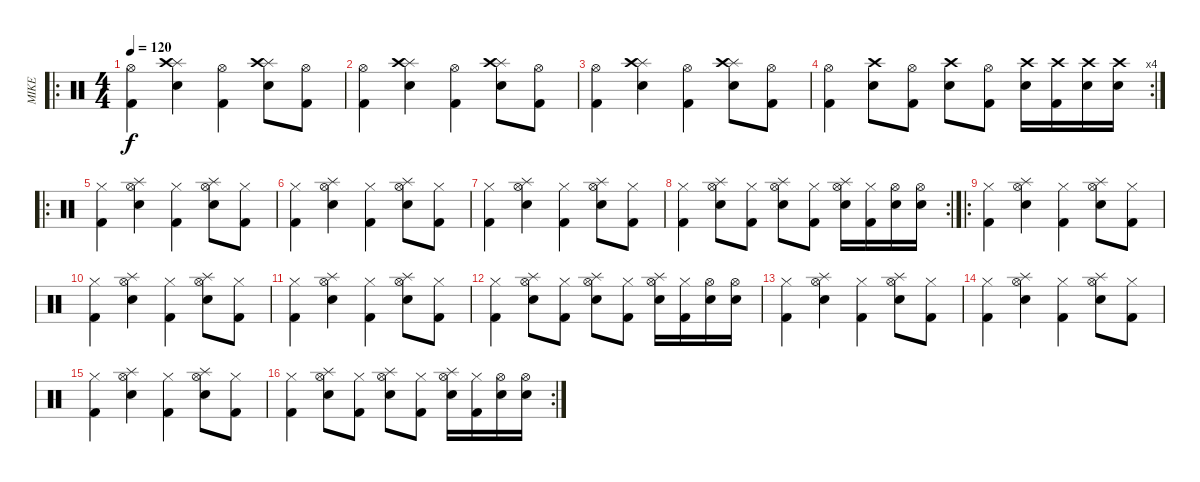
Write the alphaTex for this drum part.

\track ("MIKE" "MIKE") {instrument percussion}
\staff {score}
\articulation defaults
\ro
\ts (4 4)
\tempo 120
\clef neutral
\ks c
("Hi-Hat (open)" "Kick (hit) 2").4{dy f} ("Splash (hit)" "Crash high (hit)" "Snare (hit) 2").4 ("Hi-Hat (open)" "Kick (hit) 2").4 ("Splash (hit)" "Crash high (hit)" "Snare (hit) 2").8 ("Hi-Hat (open)" "Kick (hit) 2").8 |
("Hi-Hat (open)" "Kick (hit) 2").4 ("Splash (hit)" "Crash high (hit)" "Snare (hit) 2").4 ("Hi-Hat (open)" "Kick (hit) 2").4 ("Splash (hit)" "Crash high (hit)" "Snare (hit) 2").8 ("Hi-Hat (open)" "Kick (hit) 2").8 |
("Hi-Hat (open)" "Kick (hit) 2").4 ("Splash (hit)" "Crash high (hit)" "Snare (hit) 2").4 ("Hi-Hat (open)" "Kick (hit) 2").4 ("Splash (hit)" "Crash high (hit)" "Snare (hit) 2").8 ("Hi-Hat (open)" "Kick (hit) 2").8 |
\rc 4
("Hi-Hat (open)" "Kick (hit) 2").4 ("Crash high (hit)" "Snare (hit) 2").8 ("Hi-Hat (open)" "Kick (hit) 2").8 ("Crash high (hit)" "Snare (hit) 2").8 ("Hi-Hat (open)" "Kick (hit) 2").8 ("Crash high (hit)" "Snare (hit) 2").16 ("Crash high (hit)" "Kick (hit) 2").16 ("Crash high (hit)" "Snare (hit) 2").16 ("Crash high (hit)" "Snare (hit) 2").16 |
\ro
("Hi-Hat (closed)" "Kick (hit) 2").4 ("Splash (hit)" "Hi-Hat (open)" "Snare (hit) 2").4 ("Hi-Hat (closed)" "Kick (hit) 2").4 ("Splash (hit)" "Hi-Hat (open)" "Snare (hit) 2").8 ("Hi-Hat (closed)" "Kick (hit) 2").8 |
("Hi-Hat (closed)" "Kick (hit) 2").4 ("Splash (hit)" "Hi-Hat (open)" "Snare (hit) 2").4 ("Hi-Hat (closed)" "Kick (hit) 2").4 ("Splash (hit)" "Hi-Hat (open)" "Snare (hit) 2").8 ("Hi-Hat (closed)" "Kick (hit) 2").8 |
("Hi-Hat (closed)" "Kick (hit) 2").4 ("Splash (hit)" "Hi-Hat (open)" "Snare (hit) 2").4 ("Hi-Hat (closed)" "Kick (hit) 2").4 ("Splash (hit)" "Hi-Hat (open)" "Snare (hit) 2").8 ("Hi-Hat (closed)" "Kick (hit) 2").8 |
\rc 2
("Hi-Hat (closed)" "Kick (hit) 2").4 ("Splash (hit)" "Hi-Hat (open)" "Snare (hit) 2").8 ("Hi-Hat (closed)" "Kick (hit) 2").8 ("Splash (hit)" "Hi-Hat (open)" "Snare (hit) 2").8 ("Hi-Hat (closed)" "Kick (hit) 2").8 ("Splash (hit)" "Hi-Hat (open)" "Snare (hit) 2").16 ("Hi-Hat (closed)" "Kick (hit) 2").16 ("Hi-Hat (open)" "Snare (hit) 2").16 ("Hi-Hat (open)" "Snare (hit) 2").16 |
\ro
("Hi-Hat (closed)" "Kick (hit) 2").4 ("Splash (hit)" "Hi-Hat (open)" "Snare (hit) 2").4 ("Hi-Hat (closed)" "Kick (hit) 2").4 ("Splash (hit)" "Hi-Hat (open)" "Snare (hit) 2").8 ("Hi-Hat (closed)" "Kick (hit) 2").8 |
("Hi-Hat (closed)" "Kick (hit) 2").4 ("Splash (hit)" "Hi-Hat (open)" "Snare (hit) 2").4 ("Hi-Hat (closed)" "Kick (hit) 2").4 ("Splash (hit)" "Hi-Hat (open)" "Snare (hit) 2").8 ("Hi-Hat (closed)" "Kick (hit) 2").8 |
("Hi-Hat (closed)" "Kick (hit) 2").4 ("Splash (hit)" "Hi-Hat (open)" "Snare (hit) 2").4 ("Hi-Hat (closed)" "Kick (hit) 2").4 ("Splash (hit)" "Hi-Hat (open)" "Snare (hit) 2").8 ("Hi-Hat (closed)" "Kick (hit) 2").8 |
("Hi-Hat (closed)" "Kick (hit) 2").4 ("Splash (hit)" "Hi-Hat (open)" "Snare (hit) 2").8 ("Hi-Hat (closed)" "Kick (hit) 2").8 ("Splash (hit)" "Hi-Hat (open)" "Snare (hit) 2").8 ("Hi-Hat (closed)" "Kick (hit) 2").8 ("Splash (hit)" "Hi-Hat (open)" "Snare (hit) 2").16 ("Hi-Hat (closed)" "Kick (hit) 2").16 ("Hi-Hat (open)" "Snare (hit) 2").16 ("Hi-Hat (open)" "Snare (hit) 2").16 |
("Hi-Hat (closed)" "Kick (hit) 2").4 ("Splash (hit)" "Hi-Hat (open)" "Snare (hit) 2").4 ("Hi-Hat (closed)" "Kick (hit) 2").4 ("Splash (hit)" "Hi-Hat (open)" "Snare (hit) 2").8 ("Hi-Hat (closed)" "Kick (hit) 2").8 |
("Hi-Hat (closed)" "Kick (hit) 2").4 ("Splash (hit)" "Hi-Hat (open)" "Snare (hit) 2").4 ("Hi-Hat (closed)" "Kick (hit) 2").4 ("Splash (hit)" "Hi-Hat (open)" "Snare (hit) 2").8 ("Hi-Hat (closed)" "Kick (hit) 2").8 |
("Hi-Hat (closed)" "Kick (hit) 2").4 ("Splash (hit)" "Hi-Hat (open)" "Snare (hit) 2").4 ("Hi-Hat (closed)" "Kick (hit) 2").4 ("Splash (hit)" "Hi-Hat (open)" "Snare (hit) 2").8 ("Hi-Hat (closed)" "Kick (hit) 2").8 |
\rc 2
("Hi-Hat (closed)" "Kick (hit) 2").4 ("Splash (hit)" "Hi-Hat (open)" "Snare (hit) 2").8 ("Hi-Hat (closed)" "Kick (hit) 2").8 ("Splash (hit)" "Hi-Hat (open)" "Snare (hit) 2").8 ("Hi-Hat (closed)" "Kick (hit) 2").8 ("Splash (hit)" "Hi-Hat (open)" "Snare (hit) 2").16 ("Hi-Hat (closed)" "Kick (hit) 2").16 ("Hi-Hat (open)" "Snare (hit) 2").16 ("Hi-Hat (open)" "Snare (hit) 2").16
